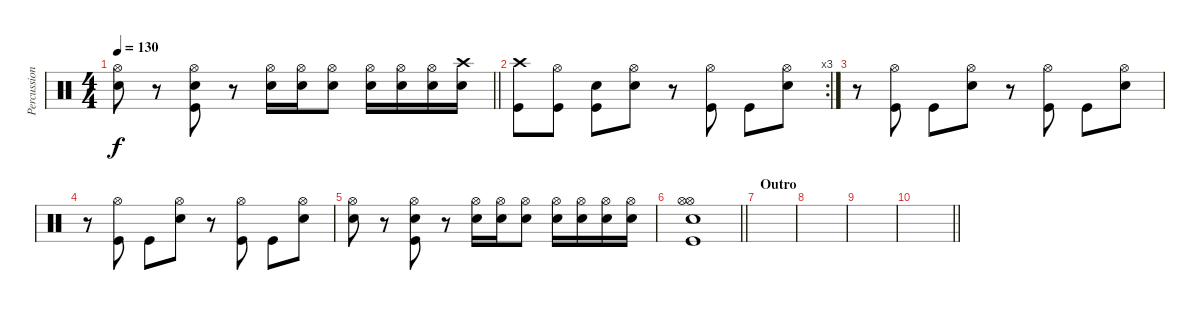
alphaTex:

\track ("Percussion" "Percussion") {instrument percussion}
\staff {score}
\articulation defaults
\ts (4 4)
\tempo 130
\clef neutral
\barLineRight lightlight
\ks c
("Hi-Hat (open)" "Snare (hit) 2").8{dy f} r.8 ("Hi-Hat (open)" "Snare (hit) 2" "Kick (hit)").8 r.8 ("Hi-Hat (open)" "Snare (hit) 2").16 ("Hi-Hat (open)" "Snare (hit) 2").16 ("Hi-Hat (open)" "Snare (hit) 2").8 ("Hi-Hat (open)" "Snare (hit) 2").16 ("Hi-Hat (open)" "Snare (hit) 2").16 ("Hi-Hat (open)" "Snare (hit) 2").16 ("Crash high (hit)" "Snare (hit) 2").16 |
\rc 3
("Crash high (hit)" "Kick (hit)").8 ("Hi-Hat (open)" "Kick (hit)").8 ("Snare (hit) 2" "Kick (hit)").8 ("Hi-Hat (open)" "Snare (hit) 2").8 r.8 ("Hi-Hat (open)" "Kick (hit)").8 "Kick (hit)".8 ("Hi-Hat (open)" "Snare (hit) 2").8 |
r.8 ("Hi-Hat (open)" "Kick (hit)").8 "Kick (hit)".8 ("Hi-Hat (open)" "Snare (hit) 2").8 r.8 ("Hi-Hat (open)" "Kick (hit)").8 "Kick (hit)".8 ("Hi-Hat (open)" "Snare (hit) 2").8 |
r.8 ("Hi-Hat (open)" "Kick (hit)").8 "Kick (hit)".8 ("Hi-Hat (open)" "Snare (hit) 2").8 r.8 ("Hi-Hat (open)" "Kick (hit)").8 "Kick (hit)".8 ("Hi-Hat (open)" "Snare (hit) 2").8 |
("Hi-Hat (open)" "Snare (hit) 2").8 r.8 ("Hi-Hat (open)" "Snare (hit) 2" "Kick (hit)").8 r.8 ("Hi-Hat (open)" "Snare (hit) 2").16 ("Hi-Hat (open)" "Snare (hit) 2").16 ("Hi-Hat (open)" "Snare (hit) 2").8 ("Hi-Hat (open)" "Snare (hit) 2").16 ("Hi-Hat (open)" "Snare (hit) 2").16 ("Hi-Hat (open)" "Snare (hit) 2").16 ("Hi-Hat (open)" "Snare (hit) 2").16 |
\barLineRight lightlight
("Hi-Hat (open)" "Hi-Hat (open)" "Snare (hit) 2" "Kick (hit)").1 |
\section ("" "Outro")
|
|
|
\barLineRight lightlight
